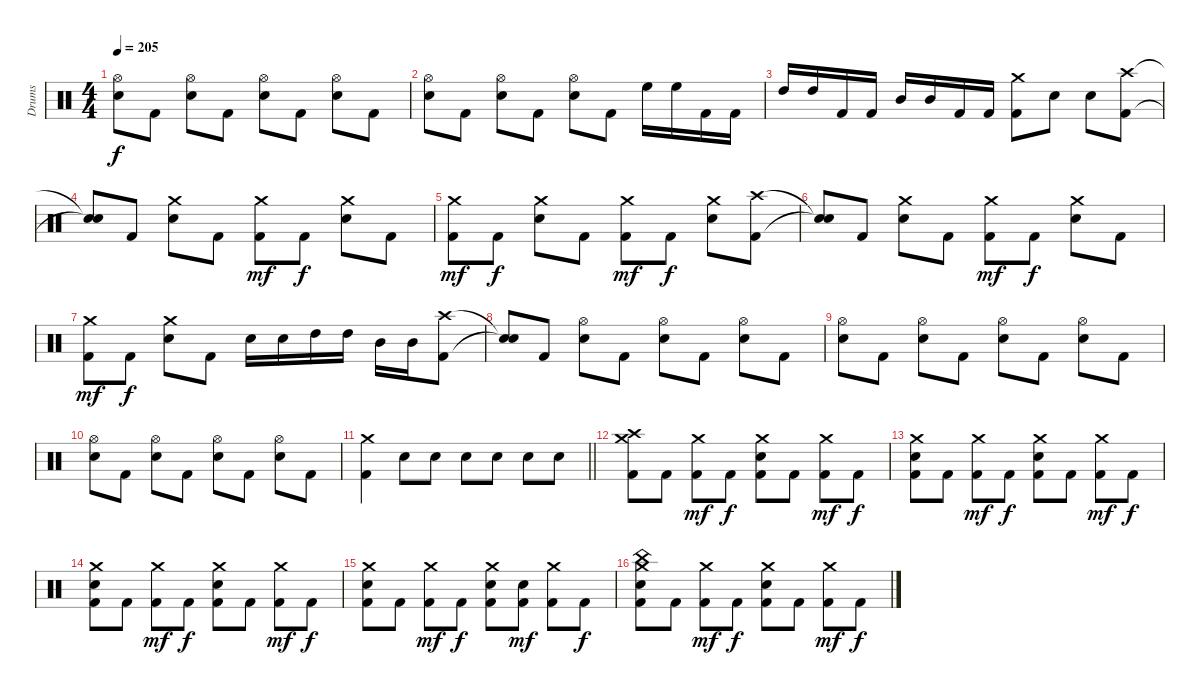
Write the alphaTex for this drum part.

\track ("Drums" "Drums") {instrument percussion}
\staff {score}
\articulation defaults
\ts (4 4)
\tempo 205
\clef neutral
\ks c
("Hi-Hat (open)" "Electric Snare (hit)").8{dy f} "Kick (hit) 2".8 ("Hi-Hat (open)" "Electric Snare (hit)").8 "Kick (hit) 2".8 ("Hi-Hat (open)" "Electric Snare (hit)").8 "Kick (hit) 2".8 ("Hi-Hat (open)" "Electric Snare (hit)").8 "Kick (hit) 2".8 |
("Hi-Hat (open)" "Electric Snare (hit)").8 "Kick (hit) 2".8 ("Hi-Hat (open)" "Electric Snare (hit)").8 "Kick (hit) 2".8 ("Hi-Hat (open)" "Electric Snare (hit)").8 "Kick (hit) 2".8 "High Floor Tom (hit)".16 "High Floor Tom (hit)".16 "Kick (hit) 2".16 "Kick (hit) 2".16 |
"High Tom (hit)".16 "High Tom (hit)".16 "Kick (hit) 2".16 "Kick (hit) 2".16 "Mid Tom (hit)".16 "Mid Tom (hit)".16 "Kick (hit) 2".16 "Kick (hit) 2".16 ("Crash medium (hit)" "Kick (hit) 2").8 "Electric Snare (hit)".8 "Electric Snare (hit)".8 ("Crash high (hit)" "Kick (hit) 2").8 |
("Snare (hit)"{t} "Snare (hit)"{t}).8 "Kick (hit) 2".8 ("Crash medium (hit)" "Electric Snare (hit)").8 "Kick (hit) 2".8 ("Crash medium (hit)" "Kick (hit) 2").8{dy mf} "Kick (hit) 2".8{dy f} ("Crash medium (hit)" "Electric Snare (hit)").8 "Kick (hit) 2".8 |
("Crash medium (hit)" "Kick (hit) 2").8{dy mf} "Kick (hit) 2".8{dy f} ("Crash medium (hit)" "Electric Snare (hit)").8 "Kick (hit) 2".8 ("Crash medium (hit)" "Kick (hit) 2").8{dy mf} "Kick (hit) 2".8{dy f} ("Crash medium (hit)" "Electric Snare (hit)").8 ("Crash high (hit)" "Kick (hit) 2").8 |
("Snare (hit)"{t} "Snare (hit)"{t}).8 "Kick (hit) 2".8 ("Crash medium (hit)" "Electric Snare (hit)").8 "Kick (hit) 2".8 ("Crash medium (hit)" "Kick (hit) 2").8{dy mf} "Kick (hit) 2".8{dy f} ("Crash medium (hit)" "Electric Snare (hit)").8 "Kick (hit) 2".8 |
("Crash medium (hit)" "Kick (hit) 2").8{dy mf} "Kick (hit) 2".8{dy f} ("Crash medium (hit)" "Electric Snare (hit)").8 "Kick (hit) 2".8 "Electric Snare (hit)".16 "Electric Snare (hit)".16 "High Tom (hit)".16 "High Tom (hit)".16 "Mid Tom (hit)".16 "Mid Tom (hit)".16 ("Crash high (hit)" "Kick (hit) 2").8 |
("Snare (hit)"{t} "Snare (hit)"{t}).8 "Kick (hit) 2".8 ("Hi-Hat (open)" "Electric Snare (hit)").8 "Kick (hit) 2".8 ("Hi-Hat (open)" "Electric Snare (hit)").8 "Kick (hit) 2".8 ("Hi-Hat (open)" "Electric Snare (hit)").8 "Kick (hit) 2".8 |
("Hi-Hat (open)" "Electric Snare (hit)").8 "Kick (hit) 2".8 ("Hi-Hat (open)" "Electric Snare (hit)").8 "Kick (hit) 2".8 ("Hi-Hat (open)" "Electric Snare (hit)").8 "Kick (hit) 2".8 ("Hi-Hat (open)" "Electric Snare (hit)").8 "Kick (hit) 2".8 |
("Hi-Hat (open)" "Electric Snare (hit)").8 "Kick (hit) 2".8 ("Hi-Hat (open)" "Electric Snare (hit)").8 "Kick (hit) 2".8 ("Hi-Hat (open)" "Electric Snare (hit)").8 "Kick (hit) 2".8 ("Hi-Hat (open)" "Electric Snare (hit)").8 "Kick (hit) 2".8 |
\barLineRight lightlight
("Crash medium (hit)" "Kick (hit) 2").4 "Electric Snare (hit)".8 "Electric Snare (hit)".8 "Electric Snare (hit)".8 "Electric Snare (hit)".8 "Electric Snare (hit)".8 "Electric Snare (hit)".8 |
("Crash high (hit)" "Crash medium (hit)" "Kick (hit) 2").8 "Kick (hit) 2".8 ("Crash medium (hit)" "Kick (hit) 2").8{dy mf} "Kick (hit) 2".8{dy f} ("Crash medium (hit)" "Electric Snare (hit)" "Kick (hit) 2").8 "Kick (hit) 2".8 ("Crash medium (hit)" "Kick (hit) 2").8{dy mf} "Kick (hit) 2".8{dy f} |
("Crash medium (hit)" "Electric Snare (hit)" "Kick (hit) 2").8 "Kick (hit) 2".8 ("Crash medium (hit)" "Kick (hit) 2").8{dy mf} "Kick (hit) 2".8{dy f} ("Crash medium (hit)" "Electric Snare (hit)" "Kick (hit) 2").8 "Kick (hit) 2".8 ("Crash medium (hit)" "Kick (hit) 2").8{dy mf} "Kick (hit) 2".8{dy f} |
("Crash medium (hit)" "Electric Snare (hit)" "Kick (hit) 2").8 "Kick (hit) 2".8 ("Crash medium (hit)" "Kick (hit) 2").8{dy mf} "Kick (hit) 2".8{dy f} ("Crash medium (hit)" "Electric Snare (hit)" "Kick (hit) 2").8 "Kick (hit) 2".8 ("Crash medium (hit)" "Kick (hit) 2").8{dy mf} "Kick (hit) 2".8{dy f} |
("Crash medium (hit)" "Electric Snare (hit)" "Kick (hit) 2").8 "Kick (hit) 2".8 ("Crash medium (hit)" "Kick (hit) 2").8{dy mf} "Kick (hit) 2".8{dy f} ("Crash medium (hit)" "Electric Snare (hit)" "Kick (hit) 2").8 ("Electric Snare (hit)" "Kick (hit) 2").8{dy mf} ("Crash medium (hit)" "Kick (hit) 2").8 "Kick (hit) 2".8{dy f} |
("China (hit)" "Crash medium (hit)" "Electric Snare (hit)" "Kick (hit) 2").8 "Kick (hit) 2".8 ("Crash medium (hit)" "Kick (hit) 2").8{dy mf} "Kick (hit) 2".8{dy f} ("Crash medium (hit)" "Electric Snare (hit)" "Kick (hit) 2").8 "Kick (hit) 2".8 ("Crash medium (hit)" "Kick (hit) 2").8{dy mf} "Kick (hit) 2".8{dy f}
